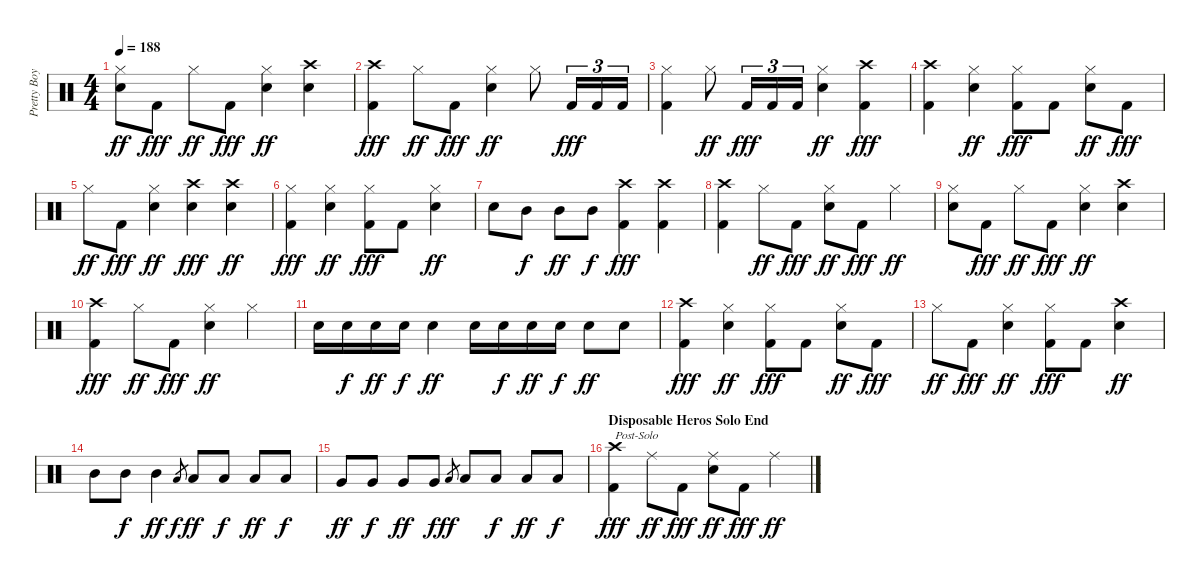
\track ("Pretty Boy Geoff (Lars Drums)" "Pretty Boy") {instrument percussion}
\staff {score}
\articulation defaults
\ts (4 4)
\tempo 188
\clef neutral
\ks c
("Hi-Hat (closed)" "Snare (hit) 2").8{dy ff} "Kick (hit) 2".8{dy fff} "Hi-Hat (closed)".8{dy ff} "Kick (hit) 2".8{dy fff} ("Hi-Hat (closed)" "Snare (hit) 2").4{dy ff} ("Crash high (hit)" "Snare (hit) 2").4 |
("Crash high (hit)" "Kick (hit) 2").4{dy fff} "Hi-Hat (closed)".8{dy ff} "Kick (hit) 2".8{dy fff} ("Hi-Hat (closed)" "Snare (hit) 2").4{dy ff} "Hi-Hat (closed)".8 "Kick (hit) 2".16{tu (3 2) dy fff} "Kick (hit) 2".16{tu (3 2)} "Kick (hit) 2".16{tu (3 2)} |
("Hi-Hat (closed)" "Kick (hit) 2").4 "Hi-Hat (closed)".8{dy ff} "Kick (hit) 2".16{tu (3 2) dy fff} "Kick (hit) 2".16{tu (3 2)} "Kick (hit) 2".16{tu (3 2)} ("Hi-Hat (closed)" "Snare (hit) 2").4{dy ff} ("Crash high (hit)" "Kick (hit) 2").4{dy fff} |
("Crash high (hit)" "Kick (hit) 2").4 ("Hi-Hat (closed)" "Snare (hit) 2").4{dy ff} ("Hi-Hat (closed)" "Kick (hit) 2").8{dy fff} "Kick (hit) 2".8 ("Hi-Hat (closed)" "Snare (hit) 2").8{dy ff} "Kick (hit) 2".8{dy fff} |
"Hi-Hat (closed)".8{dy ff} "Kick (hit) 2".8{dy fff} ("Hi-Hat (closed)" "Snare (hit) 2").4{dy ff} ("Crash high (hit)" "Snare (hit) 2").4{dy fff} ("Crash high (hit)" "Snare (hit) 2").4{dy ff} |
("Hi-Hat (closed)" "Kick (hit) 2").4{dy fff} ("Hi-Hat (closed)" "Snare (hit) 2").4{dy ff} ("Hi-Hat (closed)" "Kick (hit) 2").8{dy fff} "Kick (hit) 2".8 ("Hi-Hat (closed)" "Snare (hit) 2").4{dy ff} |
"Snare (hit) 2".8 "Mid Tom (hit)".8{dy f} "Mid Tom (hit)".8{dy ff} "Mid Tom (hit)".8{dy f} ("Crash high (hit)" "Kick (hit) 2").4{dy fff} ("Crash high (hit)" "Kick (hit) 2").4 |
("Crash high (hit)" "Kick (hit) 2").4 "Hi-Hat (closed)".8{dy ff} "Kick (hit) 2".8{dy fff} ("Hi-Hat (closed)" "Snare (hit) 2").8{dy ff} "Kick (hit) 2".8{dy fff} "Hi-Hat (closed)".4{dy ff} |
("Hi-Hat (closed)" "Snare (hit) 2").8 "Kick (hit) 2".8{dy fff} "Hi-Hat (closed)".8{dy ff} "Kick (hit) 2".8{dy fff} ("Hi-Hat (closed)" "Snare (hit) 2").4{dy ff} ("Crash high (hit)" "Snare (hit) 2").4 |
("Crash high (hit)" "Kick (hit) 2").4{dy fff} "Hi-Hat (closed)".8{dy ff} "Kick (hit) 2".8{dy fff} ("Hi-Hat (closed)" "Snare (hit) 2").4{dy ff} "Hi-Hat (closed)".4 |
"Snare (hit) 2".16 "Snare (hit) 2".16{dy f} "Snare (hit) 2".16{dy ff} "Snare (hit) 2".16{dy f} "Snare (hit) 2".4{dy ff} "Snare (hit) 2".16 "Snare (hit) 2".16{dy f} "Snare (hit) 2".16{dy ff} "Snare (hit) 2".16{dy f} "Snare (hit) 2".8{dy ff} "Snare (hit) 2".8 |
("Crash high (hit)" "Kick (hit) 2").4{dy fff} ("Hi-Hat (closed)" "Snare (hit) 2").4{dy ff} ("Hi-Hat (closed)" "Kick (hit) 2").8{dy fff} "Kick (hit) 2".8 ("Hi-Hat (closed)" "Snare (hit) 2").8{dy ff} "Kick (hit) 2".8{dy fff} |
"Hi-Hat (closed)".8{dy ff} "Kick (hit) 2".8{dy fff} ("Hi-Hat (closed)" "Snare (hit) 2").4{dy ff} ("Hi-Hat (closed)" "Kick (hit) 2").8{dy fff} "Kick (hit) 2".8 ("Crash high (hit)" "Snare (hit) 2").4{dy ff} |
"Mid Tom (hit)".8 "Mid Tom (hit)".8{dy f} "Mid Tom (hit)".4{dy ff} "Low Tom (hit)"{sl}.8{gr dy f} "Low Tom (hit)".8{dy ff} "Low Tom (hit)".8{dy f} "Low Tom (hit)".8{dy ff} "Low Tom (hit)".8{dy f} |
"Very Low Tom (hit)".8{dy ff} "Very Low Tom (hit)".8{dy f} "Very Low Tom (hit)".8{dy ff} "Very Low Tom (hit)".8{dy f} "Low Floor Tom (hit)"{sl}.8{gr dy ff} "Low Floor Tom (hit)".8 "Low Floor Tom (hit)".8{dy f} "Low Floor Tom (hit)".8{dy ff} "Low Floor Tom (hit)".8{dy f} |
\section ("" "Disposable Heros Solo End")
("Crash high (hit)" "Kick (hit) 2").4{txt "Post-Solo" dy fff} "Ride (middle)".8{dy ff} "Kick (hit) 2".8{dy fff} ("Ride (middle)" "Snare (hit) 2").8{dy ff} "Kick (hit) 2".8{dy fff} "Ride (middle)".4{dy ff}
